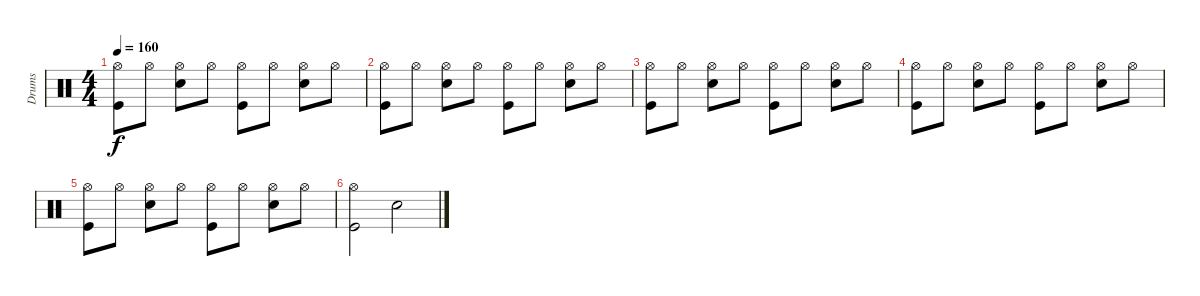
\track ("Drums" "Drums") {instrument percussion}
\staff {score}
\articulation defaults
\ts (4 4)
\tempo 160
\clef neutral
\ks c
("Hi-Hat (open)" "Kick (hit)").8{dy f} "Hi-Hat (open)".8 ("Hi-Hat (open)" "Snare (hit) 2").8 "Hi-Hat (open)".8 ("Hi-Hat (open)" "Kick (hit)").8 "Hi-Hat (open)".8 ("Hi-Hat (open)" "Snare (hit) 2").8 "Hi-Hat (open)".8 |
("Hi-Hat (open)" "Kick (hit)").8 "Hi-Hat (open)".8 ("Hi-Hat (open)" "Snare (hit) 2").8 "Hi-Hat (open)".8 ("Hi-Hat (open)" "Kick (hit)").8 "Hi-Hat (open)".8 ("Hi-Hat (open)" "Snare (hit) 2").8 "Hi-Hat (open)".8 |
("Hi-Hat (open)" "Kick (hit)").8 "Hi-Hat (open)".8 ("Hi-Hat (open)" "Snare (hit) 2").8 "Hi-Hat (open)".8 ("Hi-Hat (open)" "Kick (hit)").8 "Hi-Hat (open)".8 ("Hi-Hat (open)" "Snare (hit) 2").8 "Hi-Hat (open)".8 |
("Hi-Hat (open)" "Kick (hit)").8 "Hi-Hat (open)".8 ("Hi-Hat (open)" "Snare (hit) 2").8 "Hi-Hat (open)".8 ("Hi-Hat (open)" "Kick (hit)").8 "Hi-Hat (open)".8 ("Hi-Hat (open)" "Snare (hit) 2").8 "Hi-Hat (open)".8 |
("Hi-Hat (open)" "Kick (hit)").8 "Hi-Hat (open)".8 ("Hi-Hat (open)" "Snare (hit) 2").8 "Hi-Hat (open)".8 ("Hi-Hat (open)" "Kick (hit)").8 "Hi-Hat (open)".8 ("Hi-Hat (open)" "Snare (hit) 2").8 "Hi-Hat (open)".8 |
("Hi-Hat (open)" "Kick (hit)").2 "Snare (hit) 2".2
